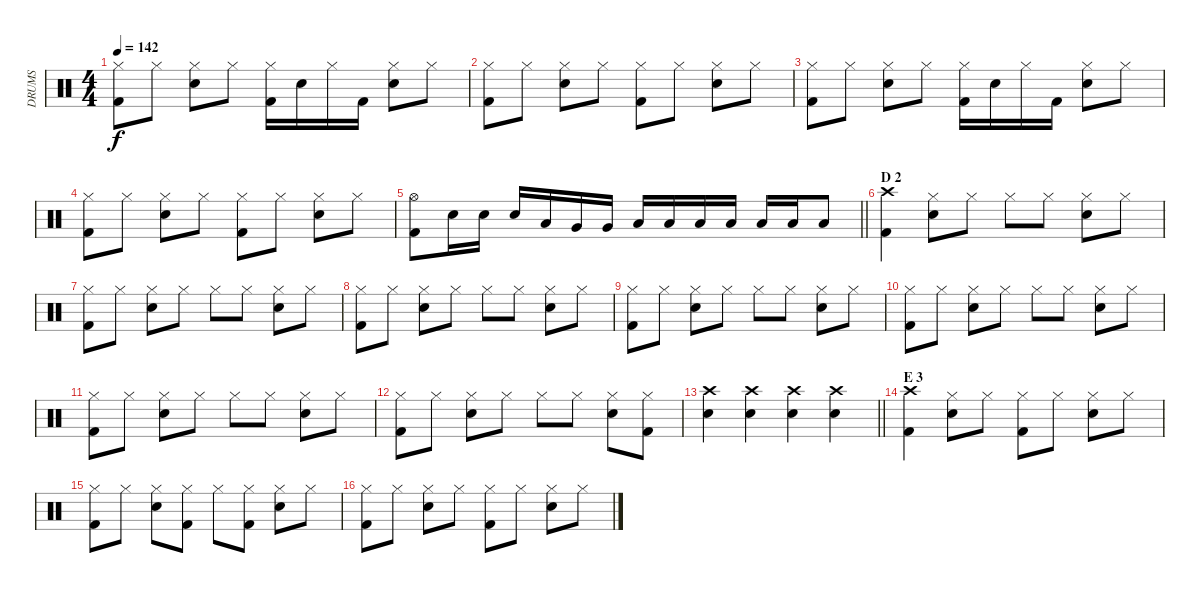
\track ("DRUMS" "DRUMS") {instrument percussion}
\staff {score}
\articulation defaults
\ts (4 4)
\tempo 142
\clef neutral
\ks c
("Hi-Hat (closed)" "Kick (hit) 2").8{dy f} "Hi-Hat (closed)".8 ("Hi-Hat (closed)" "Snare (hit) 2").8 "Hi-Hat (closed)".8 ("Hi-Hat (closed)" "Kick (hit) 2").16 "Snare (hit) 2".16 "Hi-Hat (closed)".16 "Kick (hit) 2".16 ("Hi-Hat (closed)" "Snare (hit) 2").8 "Hi-Hat (closed)".8 |
("Hi-Hat (closed)" "Kick (hit) 2").8 "Hi-Hat (closed)".8 ("Hi-Hat (closed)" "Snare (hit) 2").8 "Hi-Hat (closed)".8 ("Hi-Hat (closed)" "Kick (hit) 2").8 "Hi-Hat (closed)".8 ("Hi-Hat (closed)" "Snare (hit) 2").8 "Hi-Hat (closed)".8 |
("Hi-Hat (closed)" "Kick (hit) 2").8 "Hi-Hat (closed)".8 ("Hi-Hat (closed)" "Snare (hit) 2").8 "Hi-Hat (closed)".8 ("Hi-Hat (closed)" "Kick (hit) 2").16 "Snare (hit) 2".16 "Hi-Hat (closed)".16 "Kick (hit) 2".16 ("Hi-Hat (closed)" "Snare (hit) 2").8 "Hi-Hat (closed)".8 |
("Hi-Hat (closed)" "Kick (hit) 2").8 "Hi-Hat (closed)".8 ("Hi-Hat (closed)" "Snare (hit) 2").8 "Hi-Hat (closed)".8 ("Hi-Hat (closed)" "Kick (hit) 2").8 "Hi-Hat (closed)".8 ("Hi-Hat (closed)" "Snare (hit) 2").8 "Hi-Hat (closed)".8 |
\barLineRight lightlight
("Hi-Hat (open)" "Kick (hit) 2").8 "Snare (hit) 2".16 "Snare (hit) 2".16 "Snare (hit) 2".16 "Low Tom (hit)".16 "Very Low Tom (hit)".16 "Very Low Tom (hit)".16 "Low Tom (hit)".16 "Low Floor Tom (hit)".16 "Low Floor Tom (hit)".16 "Low Floor Tom (hit)".16 "Low Floor Tom (hit)".16 "Low Floor Tom (hit)".16 "Low Floor Tom (hit)".8 |
\section ("" "D 2")
("Crash high (hit)" "Kick (hit) 2").4 ("Hi-Hat (closed)" "Snare (hit) 2").8 "Hi-Hat (closed)".8 "Hi-Hat (closed)".8 "Hi-Hat (closed)".8 ("Hi-Hat (closed)" "Snare (hit) 2").8 "Hi-Hat (closed)".8 |
("Hi-Hat (closed)" "Kick (hit) 2").8 "Hi-Hat (closed)".8 ("Hi-Hat (closed)" "Snare (hit) 2").8 "Hi-Hat (closed)".8 "Hi-Hat (closed)".8 "Hi-Hat (closed)".8 ("Hi-Hat (closed)" "Snare (hit) 2").8 "Hi-Hat (closed)".8 |
("Hi-Hat (closed)" "Kick (hit) 2").8 "Hi-Hat (closed)".8 ("Hi-Hat (closed)" "Snare (hit) 2").8 "Hi-Hat (closed)".8 "Hi-Hat (closed)".8 "Hi-Hat (closed)".8 ("Hi-Hat (closed)" "Snare (hit) 2").8 "Hi-Hat (closed)".8 |
("Hi-Hat (closed)" "Kick (hit) 2").8 "Hi-Hat (closed)".8 ("Hi-Hat (closed)" "Snare (hit) 2").8 "Hi-Hat (closed)".8 "Hi-Hat (closed)".8 "Hi-Hat (closed)".8 ("Hi-Hat (closed)" "Snare (hit) 2").8 "Hi-Hat (closed)".8 |
("Hi-Hat (closed)" "Kick (hit) 2").8 "Hi-Hat (closed)".8 ("Hi-Hat (closed)" "Snare (hit) 2").8 "Hi-Hat (closed)".8 "Hi-Hat (closed)".8 "Hi-Hat (closed)".8 ("Hi-Hat (closed)" "Snare (hit) 2").8 "Hi-Hat (closed)".8 |
("Hi-Hat (closed)" "Kick (hit) 2").8 "Hi-Hat (closed)".8 ("Hi-Hat (closed)" "Snare (hit) 2").8 "Hi-Hat (closed)".8 "Hi-Hat (closed)".8 "Hi-Hat (closed)".8 ("Hi-Hat (closed)" "Snare (hit) 2").8 "Hi-Hat (closed)".8 |
("Hi-Hat (closed)" "Kick (hit) 2").8 "Hi-Hat (closed)".8 ("Hi-Hat (closed)" "Snare (hit) 2").8 "Hi-Hat (closed)".8 "Hi-Hat (closed)".8 "Hi-Hat (closed)".8 ("Hi-Hat (closed)" "Snare (hit) 2").8 ("Hi-Hat (closed)" "Kick (hit) 2").8 |
\barLineRight lightlight
("Crash high (hit)" "Snare (hit) 2").4 ("Crash high (hit)" "Snare (hit) 2").4 ("Crash high (hit)" "Snare (hit) 2").4 ("Crash high (hit)" "Snare (hit) 2").4 |
\section ("" "E 3")
("Crash high (hit)" "Kick (hit) 2").4 ("Hi-Hat (closed)" "Snare (hit) 2").8 "Hi-Hat (closed)".8 ("Hi-Hat (closed)" "Kick (hit) 2").8 "Hi-Hat (closed)".8 ("Hi-Hat (closed)" "Snare (hit) 2").8 "Hi-Hat (closed)".8 |
("Hi-Hat (closed)" "Kick (hit) 2").8 "Hi-Hat (closed)".8 ("Hi-Hat (closed)" "Snare (hit) 2").8 ("Hi-Hat (closed)" "Kick (hit) 2").8 "Hi-Hat (closed)".8 ("Hi-Hat (closed)" "Kick (hit) 2").8 ("Hi-Hat (closed)" "Snare (hit) 2").8 "Hi-Hat (closed)".8 |
("Hi-Hat (closed)" "Kick (hit) 2").8 "Hi-Hat (closed)".8 ("Hi-Hat (closed)" "Snare (hit) 2").8 "Hi-Hat (closed)".8 ("Hi-Hat (closed)" "Kick (hit) 2").8 "Hi-Hat (closed)".8 ("Hi-Hat (closed)" "Snare (hit) 2").8 "Hi-Hat (closed)".8
